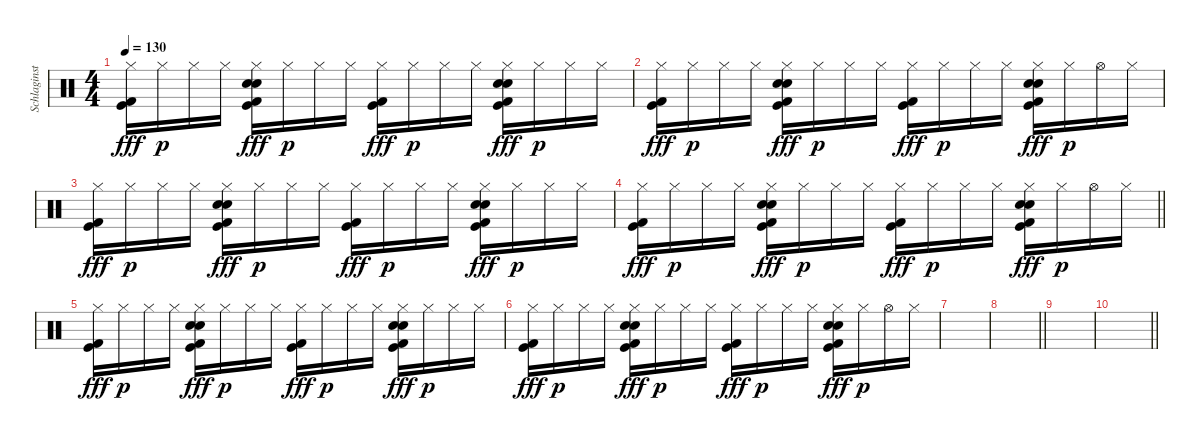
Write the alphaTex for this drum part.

\track ("Schlaginstrumente - Auswahl" "Schlaginst") {instrument percussion}
\staff {score}
\articulation defaults
\ts (4 4)
\tempo 130
\clef neutral
\ks c
("Hi-Hat (closed)" "Kick (hit) 2" "Kick (hit)").16{dy fff} "Hi-Hat (closed)".16{dy p} "Hi-Hat (closed)".16 "Hi-Hat (closed)".16 ("Hand Clap (hit)" "Hi-Hat (closed)" "Snare (hit) 2" "Kick (hit) 2" "Kick (hit)").16{dy fff} "Hi-Hat (closed)".16{dy p} "Hi-Hat (closed)".16 "Hi-Hat (closed)".16 ("Hi-Hat (closed)" "Kick (hit) 2" "Kick (hit)").16{dy fff} "Hi-Hat (closed)".16{dy p} "Hi-Hat (closed)".16 "Hi-Hat (closed)".16 ("Hand Clap (hit)" "Hi-Hat (closed)" "Snare (hit) 2" "Kick (hit) 2" "Kick (hit)").16{dy fff} "Hi-Hat (closed)".16{dy p} "Hi-Hat (closed)".16 "Hi-Hat (closed)".16 |
("Hi-Hat (closed)" "Kick (hit) 2" "Kick (hit)").16{dy fff} "Hi-Hat (closed)".16{dy p} "Hi-Hat (closed)".16 "Hi-Hat (closed)".16 ("Hand Clap (hit)" "Hi-Hat (closed)" "Snare (hit) 2" "Kick (hit) 2" "Kick (hit)").16{dy fff} "Hi-Hat (closed)".16{dy p} "Hi-Hat (closed)".16 "Hi-Hat (closed)".16 ("Hi-Hat (closed)" "Kick (hit) 2" "Kick (hit)").16{dy fff} "Hi-Hat (closed)".16{dy p} "Hi-Hat (closed)".16 "Hi-Hat (closed)".16 ("Hand Clap (hit)" "Hi-Hat (closed)" "Snare (hit) 2" "Kick (hit) 2" "Kick (hit)").16{dy fff} "Hi-Hat (closed)".16{dy p} "Hi-Hat (open)".16 "Hi-Hat (closed)".16 |
("Hi-Hat (closed)" "Kick (hit) 2" "Kick (hit)").16{dy fff} "Hi-Hat (closed)".16{dy p} "Hi-Hat (closed)".16 "Hi-Hat (closed)".16 ("Hand Clap (hit)" "Hi-Hat (closed)" "Snare (hit) 2" "Kick (hit) 2" "Kick (hit)").16{dy fff} "Hi-Hat (closed)".16{dy p} "Hi-Hat (closed)".16 "Hi-Hat (closed)".16 ("Hi-Hat (closed)" "Kick (hit) 2" "Kick (hit)").16{dy fff} "Hi-Hat (closed)".16{dy p} "Hi-Hat (closed)".16 "Hi-Hat (closed)".16 ("Hand Clap (hit)" "Hi-Hat (closed)" "Snare (hit) 2" "Kick (hit) 2" "Kick (hit)").16{dy fff} "Hi-Hat (closed)".16{dy p} "Hi-Hat (closed)".16 "Hi-Hat (closed)".16 |
\barLineRight lightlight
("Hi-Hat (closed)" "Kick (hit) 2" "Kick (hit)").16{dy fff} "Hi-Hat (closed)".16{dy p} "Hi-Hat (closed)".16 "Hi-Hat (closed)".16 ("Hand Clap (hit)" "Hi-Hat (closed)" "Snare (hit) 2" "Kick (hit) 2" "Kick (hit)").16{dy fff} "Hi-Hat (closed)".16{dy p} "Hi-Hat (closed)".16 "Hi-Hat (closed)".16 ("Hi-Hat (closed)" "Kick (hit) 2" "Kick (hit)").16{dy fff} "Hi-Hat (closed)".16{dy p} "Hi-Hat (closed)".16 "Hi-Hat (closed)".16 ("Hand Clap (hit)" "Hi-Hat (closed)" "Snare (hit) 2" "Kick (hit) 2" "Kick (hit)").16{dy fff} "Hi-Hat (closed)".16{dy p} "Hi-Hat (open)".16 "Hi-Hat (closed)".16 |
("Hi-Hat (closed)" "Kick (hit) 2" "Kick (hit)").16{dy fff} "Hi-Hat (closed)".16{dy p} "Hi-Hat (closed)".16 "Hi-Hat (closed)".16 ("Hand Clap (hit)" "Hi-Hat (closed)" "Snare (hit) 2" "Kick (hit) 2" "Kick (hit)").16{dy fff} "Hi-Hat (closed)".16{dy p} "Hi-Hat (closed)".16 "Hi-Hat (closed)".16 ("Hi-Hat (closed)" "Kick (hit) 2" "Kick (hit)").16{dy fff} "Hi-Hat (closed)".16{dy p} "Hi-Hat (closed)".16 "Hi-Hat (closed)".16 ("Hand Clap (hit)" "Hi-Hat (closed)" "Snare (hit) 2" "Kick (hit) 2" "Kick (hit)").16{dy fff} "Hi-Hat (closed)".16{dy p} "Hi-Hat (closed)".16 "Hi-Hat (closed)".16 |
("Hi-Hat (closed)" "Kick (hit) 2" "Kick (hit)").16{dy fff} "Hi-Hat (closed)".16{dy p} "Hi-Hat (closed)".16 "Hi-Hat (closed)".16 ("Hand Clap (hit)" "Hi-Hat (closed)" "Snare (hit) 2" "Kick (hit) 2" "Kick (hit)").16{dy fff} "Hi-Hat (closed)".16{dy p} "Hi-Hat (closed)".16 "Hi-Hat (closed)".16 ("Hi-Hat (closed)" "Kick (hit) 2" "Kick (hit)").16{dy fff} "Hi-Hat (closed)".16{dy p} "Hi-Hat (closed)".16 "Hi-Hat (closed)".16 ("Hand Clap (hit)" "Hi-Hat (closed)" "Snare (hit) 2" "Kick (hit) 2" "Kick (hit)").16{dy fff} "Hi-Hat (closed)".16{dy p} "Hi-Hat (open)".16 "Hi-Hat (closed)".16 |
|
\barLineRight lightlight
|
|
\barLineRight lightlight
